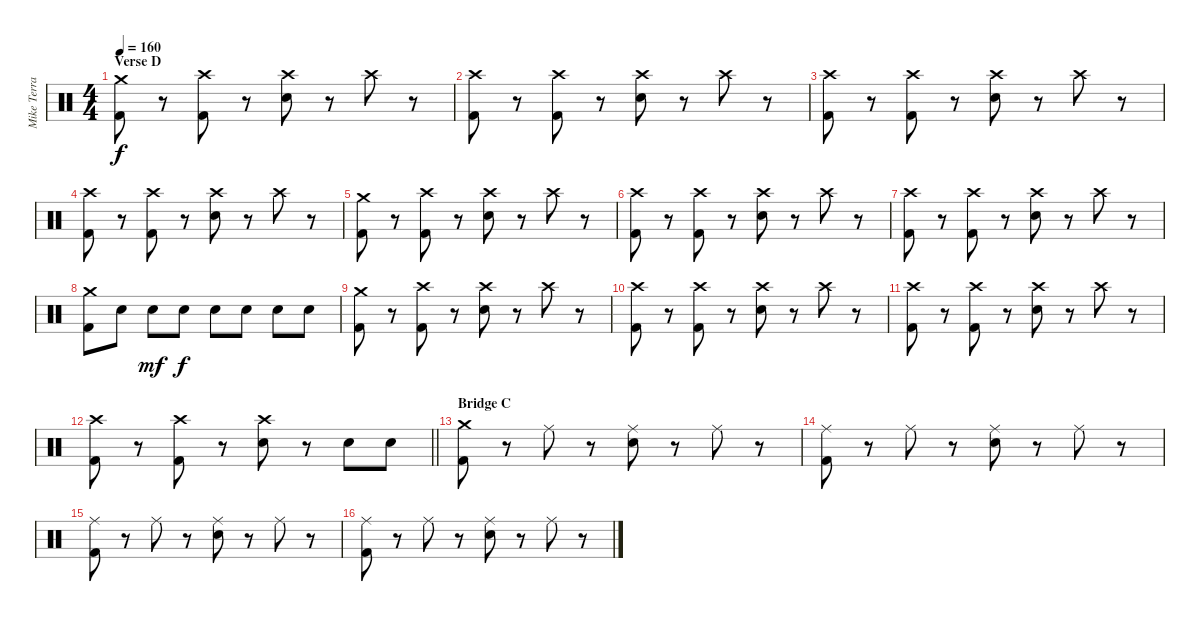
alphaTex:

\track ("Mike Terrana" "Mike Terra") {instrument percussion}
\staff {score}
\articulation defaults
\ts (4 4)
\section ("" "Verse D")
\tempo 160
\clef neutral
\ks c
("Crash medium (hit)" "Kick (hit) 2").8{dy f} r.8 ("Crash high (hit)" "Kick (hit) 2").8 r.8 ("Crash high (hit)" "Snare (hit) 2").8 r.8 "Crash high (hit)".8 r.8 |
("Crash high (hit)" "Kick (hit) 2").8 r.8 ("Crash high (hit)" "Kick (hit) 2").8 r.8 ("Crash high (hit)" "Snare (hit) 2").8 r.8 "Crash high (hit)".8 r.8 |
("Crash high (hit)" "Kick (hit) 2").8 r.8 ("Crash high (hit)" "Kick (hit) 2").8 r.8 ("Crash high (hit)" "Snare (hit) 2").8 r.8 "Crash high (hit)".8 r.8 |
("Crash high (hit)" "Kick (hit) 2").8 r.8 ("Crash high (hit)" "Kick (hit) 2").8 r.8 ("Crash high (hit)" "Snare (hit) 2").8 r.8 "Crash high (hit)".8 r.8 |
("Crash medium (hit)" "Kick (hit) 2").8 r.8 ("Crash high (hit)" "Kick (hit) 2").8 r.8 ("Crash high (hit)" "Snare (hit) 2").8 r.8 "Crash high (hit)".8 r.8 |
("Crash high (hit)" "Kick (hit) 2").8 r.8 ("Crash high (hit)" "Kick (hit) 2").8 r.8 ("Crash high (hit)" "Snare (hit) 2").8 r.8 "Crash high (hit)".8 r.8 |
("Crash high (hit)" "Kick (hit) 2").8 r.8 ("Crash high (hit)" "Kick (hit) 2").8 r.8 ("Crash high (hit)" "Snare (hit) 2").8 r.8 "Crash high (hit)".8 r.8 |
("Crash medium (hit)" "Kick (hit) 2").8 "Snare (hit) 2".8 "Snare (hit) 2".8{dy mf} "Snare (hit) 2".8{dy f} "Snare (hit) 2".8 "Snare (hit) 2".8 "Snare (hit) 2".8 "Snare (hit) 2".8 |
("Crash medium (hit)" "Kick (hit) 2").8 r.8 ("Crash high (hit)" "Kick (hit) 2").8 r.8 ("Crash high (hit)" "Snare (hit) 2").8 r.8 "Crash high (hit)".8 r.8 |
("Crash high (hit)" "Kick (hit) 2").8 r.8 ("Crash high (hit)" "Kick (hit) 2").8 r.8 ("Crash high (hit)" "Snare (hit) 2").8 r.8 "Crash high (hit)".8 r.8 |
("Crash high (hit)" "Kick (hit) 2").8 r.8 ("Crash high (hit)" "Kick (hit) 2").8 r.8 ("Crash high (hit)" "Snare (hit) 2").8 r.8 "Crash high (hit)".8 r.8 |
\barLineRight lightlight
("Crash high (hit)" "Kick (hit) 2").8 r.8 ("Crash high (hit)" "Kick (hit) 2").8 r.8 ("Crash high (hit)" "Snare (hit) 2").8 r.8 "Snare (hit) 2".8 "Snare (hit) 2".8 |
\section ("" "Bridge C")
("Crash medium (hit)" "Kick (hit) 2").8 r.8 "Ride (middle)".8 r.8 ("Ride (middle)" "Snare (hit) 2").8 r.8 "Ride (middle)".8 r.8 |
("Ride (middle)" "Kick (hit) 2").8 r.8 "Ride (middle)".8 r.8 ("Ride (middle)" "Snare (hit) 2").8 r.8 "Ride (middle)".8 r.8 |
("Ride (middle)" "Kick (hit) 2").8 r.8 "Ride (middle)".8 r.8 ("Ride (middle)" "Snare (hit) 2").8 r.8 "Ride (middle)".8 r.8 |
("Ride (middle)" "Kick (hit) 2").8 r.8 "Ride (middle)".8 r.8 ("Ride (middle)" "Snare (hit) 2").8 r.8 "Ride (middle)".8 r.8
